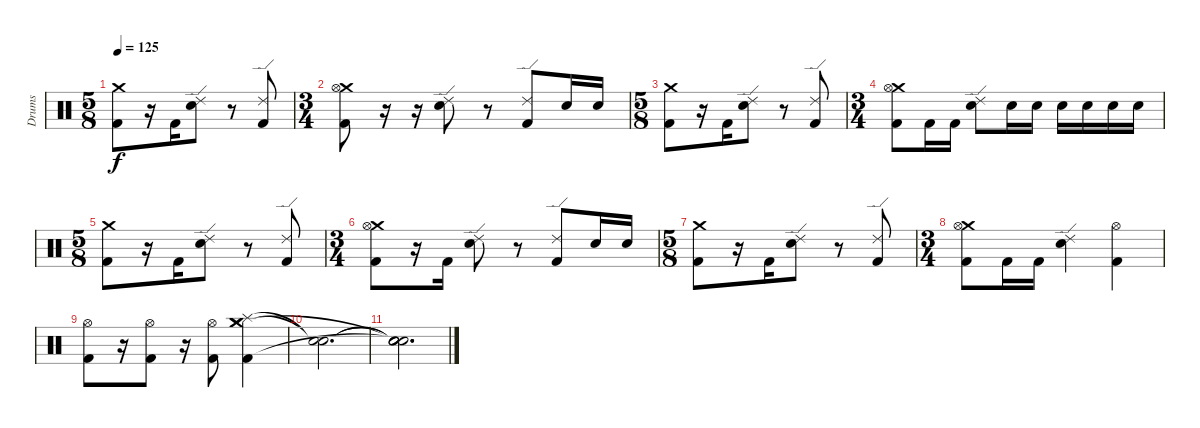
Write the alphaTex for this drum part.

\track ("Drums" "Drums") {instrument percussion}
\staff {score}
\articulation defaults
\ts (5 8)
\tempo 125
\clef neutral
\ks c
("Crash medium (hit)" "Kick (hit) 2").8{dy f} r.16 "Kick (hit) 2".16 ("Ride (edge) 2" "Electric Snare (hit)").8 r.8 ("Ride (edge) 2" "Kick (hit) 2").8 |
\ts (3 4)
("Crash medium (hit)" "Hi-Hat (open)" "Kick (hit) 2").8 r.16 r.16 ("Ride (edge) 2" "Electric Snare (hit)").8 r.8 ("Ride (edge) 2" "Kick (hit) 2").8 "Electric Snare (hit)".16 "Electric Snare (hit)".16 |
\ts (5 8)
("Crash medium (hit)" "Kick (hit) 2").8 r.16 "Kick (hit) 2".16 ("Ride (edge) 2" "Electric Snare (hit)").8 r.8 ("Ride (edge) 2" "Kick (hit) 2").8 |
\ts (3 4)
("Crash medium (hit)" "Hi-Hat (open)" "Kick (hit) 2").8 "Kick (hit) 2".16 "Kick (hit) 2".16 ("Ride (edge) 2" "Electric Snare (hit)").8 "Electric Snare (hit)".16 "Electric Snare (hit)".16 "Electric Snare (hit)".16 "Electric Snare (hit)".16 "Electric Snare (hit)".16 "Electric Snare (hit)".16 |
\ts (5 8)
("Crash medium (hit)" "Kick (hit) 2").8 r.16 "Kick (hit) 2".16 ("Ride (edge) 2" "Electric Snare (hit)").8 r.8 ("Ride (edge) 2" "Kick (hit) 2").8 |
\ts (3 4)
("Crash medium (hit)" "Hi-Hat (open)" "Kick (hit) 2").8 r.16 "Kick (hit) 2".16 ("Ride (edge) 2" "Electric Snare (hit)").8 r.8 ("Ride (edge) 2" "Kick (hit) 2").8 "Electric Snare (hit)".16 "Electric Snare (hit)".16 |
\ts (5 8)
("Crash medium (hit)" "Kick (hit) 2").8 r.16 "Kick (hit) 2".16 ("Ride (edge) 2" "Electric Snare (hit)").8 r.8 ("Ride (edge) 2" "Kick (hit) 2").8 |
\ts (3 4)
("Crash medium (hit)" "Hi-Hat (open)" "Kick (hit) 2").8 "Kick (hit) 2".16 "Kick (hit) 2".16 ("Ride (edge) 2" "Electric Snare (hit)").4 ("Hi-Hat (open)" "Kick (hit) 2").4 |
("Hi-Hat (open)" "Kick (hit) 2").8 r.16 ("Hi-Hat (open)" "Kick (hit) 2").8 r.16 ("Hi-Hat (open)" "Kick (hit) 2").8 ("Splash (hit)" "Crash medium (hit)" "Crash medium (hit)" "Kick (hit) 2").4 |
("Snare (hit)"{t} "Snare (hit)"{t}).2{d} |
("Snare (hit)"{t} "Snare (hit)"{t} "Snare (hit)"{t} "Snare (hit)"{t}).2{d}
